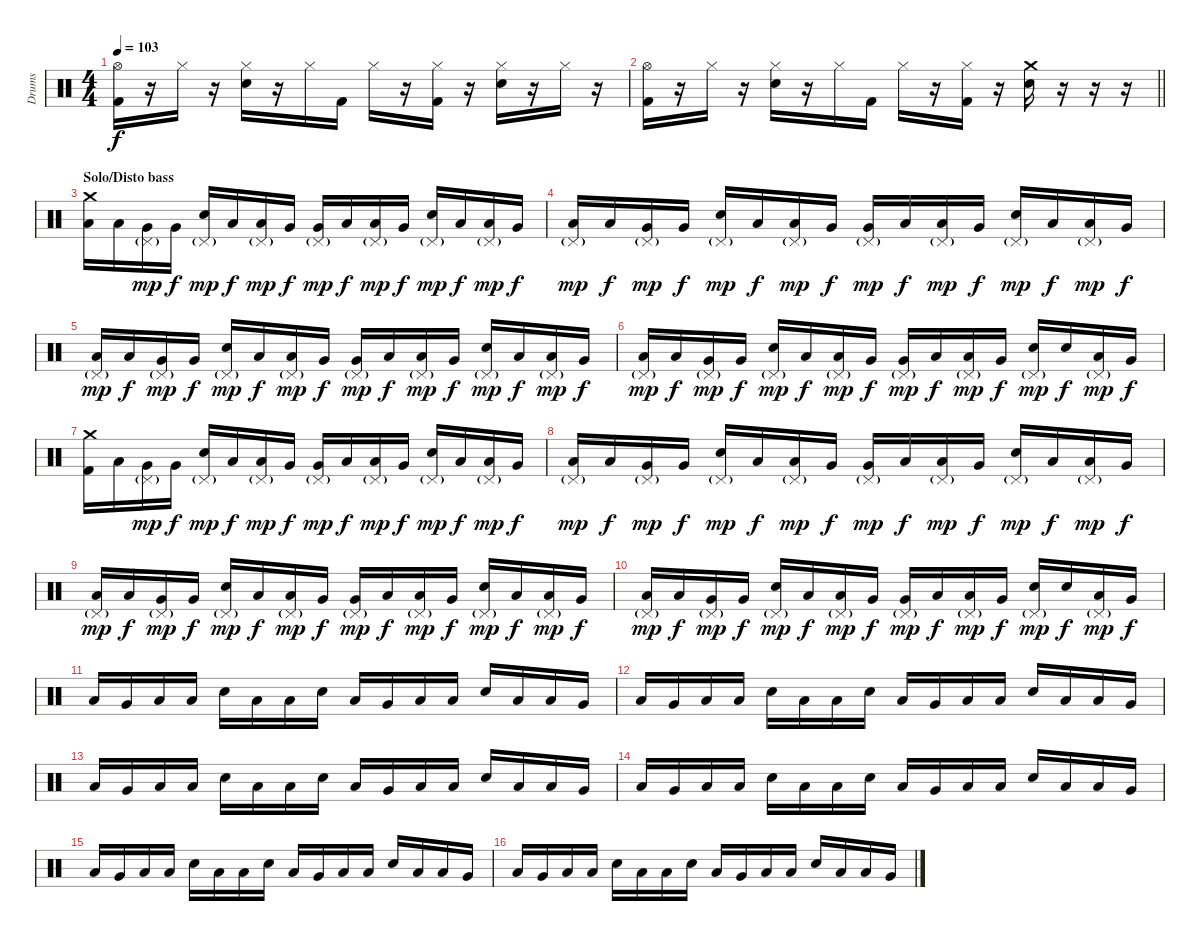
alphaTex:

\track ("Drums" "Drums") {instrument percussion}
\staff {score}
\articulation defaults
\ts (4 4)
\tempo 103
\clef neutral
\ks c
("Hi-Hat (open)" "Kick (hit) 2").16{dy f} r.16 "Hi-Hat (closed)".16 r.16 ("Hi-Hat (closed)" "Electric Snare (hit)").16 r.16 "Hi-Hat (closed)".16 "Kick (hit) 2".16 "Hi-Hat (closed)".16 r.16 ("Hi-Hat (closed)" "Kick (hit) 2").16 r.16 ("Hi-Hat (closed)" "Electric Snare (hit)").16 r.16 "Hi-Hat (closed)".16 r.16 |
\barLineRight lightlight
("Hi-Hat (open)" "Kick (hit) 2").16 r.16 "Hi-Hat (closed)".16 r.16 ("Hi-Hat (closed)" "Electric Snare (hit)").16 r.16 "Hi-Hat (closed)".16 "Kick (hit) 2".16 "Hi-Hat (closed)".16 r.16 ("Hi-Hat (closed)" "Kick (hit) 2").16 r.16 ("Crash medium (hit)" "Electric Snare (hit)").16 r.16 r.16 r.16 |
\section ("" "Solo/Disto bass")
("Crash medium (hit)" "Low Tom (hit)").16 "Low Tom (hit)".16 ("Pedal Hi-Hat (hit)"{g} "Very Low Tom (hit)").16{dy mp} "Very Low Tom (hit)".16{dy f} ("Pedal Hi-Hat (hit)"{g} "Electric Snare (hit)").16{dy mp} "Low Tom (hit)".16{dy f} ("Pedal Hi-Hat (hit)"{g} "Low Tom (hit)").16{dy mp} "Very Low Tom (hit)".16{dy f} ("Pedal Hi-Hat (hit)"{g} "Very Low Tom (hit)").16{dy mp} "Low Tom (hit)".16{dy f} ("Pedal Hi-Hat (hit)"{g} "Low Tom (hit)").16{dy mp} "Very Low Tom (hit)".16{dy f} ("Pedal Hi-Hat (hit)"{g} "Electric Snare (hit)").16{dy mp} "Low Tom (hit)".16{dy f} ("Pedal Hi-Hat (hit)"{g} "Low Tom (hit)").16{dy mp} "Very Low Tom (hit)".16{dy f} |
("Pedal Hi-Hat (hit)"{g} "Low Tom (hit)").16{dy mp} "Low Tom (hit)".16{dy f} ("Pedal Hi-Hat (hit)"{g} "Very Low Tom (hit)").16{dy mp} "Very Low Tom (hit)".16{dy f} ("Pedal Hi-Hat (hit)"{g} "Electric Snare (hit)").16{dy mp} "Low Tom (hit)".16{dy f} ("Pedal Hi-Hat (hit)"{g} "Low Tom (hit)").16{dy mp} "Very Low Tom (hit)".16{dy f} ("Pedal Hi-Hat (hit)"{g} "Very Low Tom (hit)").16{dy mp} "Low Tom (hit)".16{dy f} ("Pedal Hi-Hat (hit)"{g} "Low Tom (hit)").16{dy mp} "Very Low Tom (hit)".16{dy f} ("Pedal Hi-Hat (hit)"{g} "Electric Snare (hit)").16{dy mp} "Low Tom (hit)".16{dy f} ("Pedal Hi-Hat (hit)"{g} "Low Tom (hit)").16{dy mp} "Very Low Tom (hit)".16{dy f} |
("Pedal Hi-Hat (hit)"{g} "Low Tom (hit)").16{dy mp} "Low Tom (hit)".16{dy f} ("Pedal Hi-Hat (hit)"{g} "Very Low Tom (hit)").16{dy mp} "Very Low Tom (hit)".16{dy f} ("Pedal Hi-Hat (hit)"{g} "Electric Snare (hit)").16{dy mp} "Low Tom (hit)".16{dy f} ("Pedal Hi-Hat (hit)"{g} "Low Tom (hit)").16{dy mp} "Very Low Tom (hit)".16{dy f} ("Pedal Hi-Hat (hit)"{g} "Very Low Tom (hit)").16{dy mp} "Low Tom (hit)".16{dy f} ("Pedal Hi-Hat (hit)"{g} "Low Tom (hit)").16{dy mp} "Very Low Tom (hit)".16{dy f} ("Pedal Hi-Hat (hit)"{g} "Electric Snare (hit)").16{dy mp} "Low Tom (hit)".16{dy f} ("Pedal Hi-Hat (hit)"{g} "Low Tom (hit)").16{dy mp} "Very Low Tom (hit)".16{dy f} |
("Pedal Hi-Hat (hit)"{g} "Low Tom (hit)").16{dy mp} "Low Tom (hit)".16{dy f} ("Pedal Hi-Hat (hit)"{g} "Very Low Tom (hit)").16{dy mp} "Very Low Tom (hit)".16{dy f} ("Pedal Hi-Hat (hit)"{g} "Electric Snare (hit)").16{dy mp} "Low Tom (hit)".16{dy f} ("Pedal Hi-Hat (hit)"{g} "Low Tom (hit)").16{dy mp} "Very Low Tom (hit)".16{dy f} ("Pedal Hi-Hat (hit)"{g} "Very Low Tom (hit)").16{dy mp} "Low Tom (hit)".16{dy f} ("Pedal Hi-Hat (hit)"{g} "Low Tom (hit)").16{dy mp} "Very Low Tom (hit)".16{dy f} ("Pedal Hi-Hat (hit)"{g} "Electric Snare (hit)").16{dy mp} "Electric Snare (hit)".16{dy f} ("Pedal Hi-Hat (hit)"{g} "Low Tom (hit)").16{dy mp} "Very Low Tom (hit)".16{dy f} |
("Crash medium (hit)" "Kick (hit) 2").16 "Low Tom (hit)".16 ("Pedal Hi-Hat (hit)"{g} "Very Low Tom (hit)").16{dy mp} "Very Low Tom (hit)".16{dy f} ("Pedal Hi-Hat (hit)"{g} "Electric Snare (hit)").16{dy mp} "Low Tom (hit)".16{dy f} ("Pedal Hi-Hat (hit)"{g} "Low Tom (hit)").16{dy mp} "Very Low Tom (hit)".16{dy f} ("Pedal Hi-Hat (hit)"{g} "Very Low Tom (hit)").16{dy mp} "Low Tom (hit)".16{dy f} ("Pedal Hi-Hat (hit)"{g} "Low Tom (hit)").16{dy mp} "Very Low Tom (hit)".16{dy f} ("Pedal Hi-Hat (hit)"{g} "Electric Snare (hit)").16{dy mp} "Low Tom (hit)".16{dy f} ("Pedal Hi-Hat (hit)"{g} "Low Tom (hit)").16{dy mp} "Very Low Tom (hit)".16{dy f} |
("Pedal Hi-Hat (hit)"{g} "Low Tom (hit)").16{dy mp} "Low Tom (hit)".16{dy f} ("Pedal Hi-Hat (hit)"{g} "Very Low Tom (hit)").16{dy mp} "Very Low Tom (hit)".16{dy f} ("Pedal Hi-Hat (hit)"{g} "Electric Snare (hit)").16{dy mp} "Low Tom (hit)".16{dy f} ("Pedal Hi-Hat (hit)"{g} "Low Tom (hit)").16{dy mp} "Very Low Tom (hit)".16{dy f} ("Pedal Hi-Hat (hit)"{g} "Very Low Tom (hit)").16{dy mp} "Low Tom (hit)".16{dy f} ("Pedal Hi-Hat (hit)"{g} "Low Tom (hit)").16{dy mp} "Very Low Tom (hit)".16{dy f} ("Pedal Hi-Hat (hit)"{g} "Electric Snare (hit)").16{dy mp} "Low Tom (hit)".16{dy f} ("Pedal Hi-Hat (hit)"{g} "Low Tom (hit)").16{dy mp} "Very Low Tom (hit)".16{dy f} |
("Pedal Hi-Hat (hit)"{g} "Low Tom (hit)").16{dy mp} "Low Tom (hit)".16{dy f} ("Pedal Hi-Hat (hit)"{g} "Very Low Tom (hit)").16{dy mp} "Very Low Tom (hit)".16{dy f} ("Pedal Hi-Hat (hit)"{g} "Electric Snare (hit)").16{dy mp} "Low Tom (hit)".16{dy f} ("Pedal Hi-Hat (hit)"{g} "Low Tom (hit)").16{dy mp} "Very Low Tom (hit)".16{dy f} ("Pedal Hi-Hat (hit)"{g} "Very Low Tom (hit)").16{dy mp} "Low Tom (hit)".16{dy f} ("Pedal Hi-Hat (hit)"{g} "Low Tom (hit)").16{dy mp} "Very Low Tom (hit)".16{dy f} ("Pedal Hi-Hat (hit)"{g} "Electric Snare (hit)").16{dy mp} "Low Tom (hit)".16{dy f} ("Pedal Hi-Hat (hit)"{g} "Low Tom (hit)").16{dy mp} "Very Low Tom (hit)".16{dy f} |
("Pedal Hi-Hat (hit)"{g} "Low Tom (hit)").16{dy mp} "Low Tom (hit)".16{dy f} ("Pedal Hi-Hat (hit)"{g} "Very Low Tom (hit)").16{dy mp} "Very Low Tom (hit)".16{dy f} ("Pedal Hi-Hat (hit)"{g} "Electric Snare (hit)").16{dy mp} "Low Tom (hit)".16{dy f} ("Pedal Hi-Hat (hit)"{g} "Low Tom (hit)").16{dy mp} "Very Low Tom (hit)".16{dy f} ("Pedal Hi-Hat (hit)"{g} "Very Low Tom (hit)").16{dy mp} "Low Tom (hit)".16{dy f} ("Pedal Hi-Hat (hit)"{g} "Low Tom (hit)").16{dy mp} "Very Low Tom (hit)".16{dy f} ("Pedal Hi-Hat (hit)"{g} "Electric Snare (hit)").16{dy mp} "Electric Snare (hit)".16{dy f} ("Pedal Hi-Hat (hit)"{g} "Low Tom (hit)").16{dy mp} "Very Low Tom (hit)".16{dy f} |
"Low Tom (hit)".16 "Very Low Tom (hit)".16 "Low Floor Tom (hit)".16 "Low Floor Tom (hit)".16 "Electric Snare (hit)".16 "Low Floor Tom (hit)".16 "Low Floor Tom (hit)".16 "Electric Snare (hit)".16 "Low Tom (hit)".16 "Very Low Tom (hit)".16 "Low Floor Tom (hit)".16 "Low Floor Tom (hit)".16 "Electric Snare (hit)".16 "Low Floor Tom (hit)".16 "Low Floor Tom (hit)".16 "Very Low Tom (hit)".16 |
"Low Tom (hit)".16 "Very Low Tom (hit)".16 "Low Floor Tom (hit)".16 "Low Floor Tom (hit)".16 "Electric Snare (hit)".16 "Low Floor Tom (hit)".16 "Low Floor Tom (hit)".16 "Electric Snare (hit)".16 "Low Tom (hit)".16 "Very Low Tom (hit)".16 "Low Floor Tom (hit)".16 "Low Floor Tom (hit)".16 "Electric Snare (hit)".16 "Low Floor Tom (hit)".16 "Low Floor Tom (hit)".16 "Very Low Tom (hit)".16 |
"Low Tom (hit)".16 "Very Low Tom (hit)".16 "Low Floor Tom (hit)".16 "Low Floor Tom (hit)".16 "Electric Snare (hit)".16 "Low Floor Tom (hit)".16 "Low Floor Tom (hit)".16 "Electric Snare (hit)".16 "Low Tom (hit)".16 "Very Low Tom (hit)".16 "Low Floor Tom (hit)".16 "Low Floor Tom (hit)".16 "Electric Snare (hit)".16 "Low Floor Tom (hit)".16 "Low Floor Tom (hit)".16 "Very Low Tom (hit)".16 |
"Low Tom (hit)".16 "Very Low Tom (hit)".16 "Low Floor Tom (hit)".16 "Low Floor Tom (hit)".16 "Electric Snare (hit)".16 "Low Floor Tom (hit)".16 "Low Floor Tom (hit)".16 "Electric Snare (hit)".16 "Low Tom (hit)".16 "Very Low Tom (hit)".16 "Low Floor Tom (hit)".16 "Low Floor Tom (hit)".16 "Electric Snare (hit)".16 "Low Floor Tom (hit)".16 "Low Floor Tom (hit)".16 "Very Low Tom (hit)".16 |
"Low Tom (hit)".16 "Very Low Tom (hit)".16 "Low Floor Tom (hit)".16 "Low Floor Tom (hit)".16 "Electric Snare (hit)".16 "Low Floor Tom (hit)".16 "Low Floor Tom (hit)".16 "Electric Snare (hit)".16 "Low Tom (hit)".16 "Very Low Tom (hit)".16 "Low Floor Tom (hit)".16 "Low Floor Tom (hit)".16 "Electric Snare (hit)".16 "Low Floor Tom (hit)".16 "Low Floor Tom (hit)".16 "Very Low Tom (hit)".16 |
"Low Tom (hit)".16 "Very Low Tom (hit)".16 "Low Floor Tom (hit)".16 "Low Floor Tom (hit)".16 "Electric Snare (hit)".16 "Low Floor Tom (hit)".16 "Low Floor Tom (hit)".16 "Electric Snare (hit)".16 "Low Tom (hit)".16 "Very Low Tom (hit)".16 "Low Floor Tom (hit)".16 "Low Floor Tom (hit)".16 "Electric Snare (hit)".16 "Low Floor Tom (hit)".16 "Low Floor Tom (hit)".16 "Very Low Tom (hit)".16
